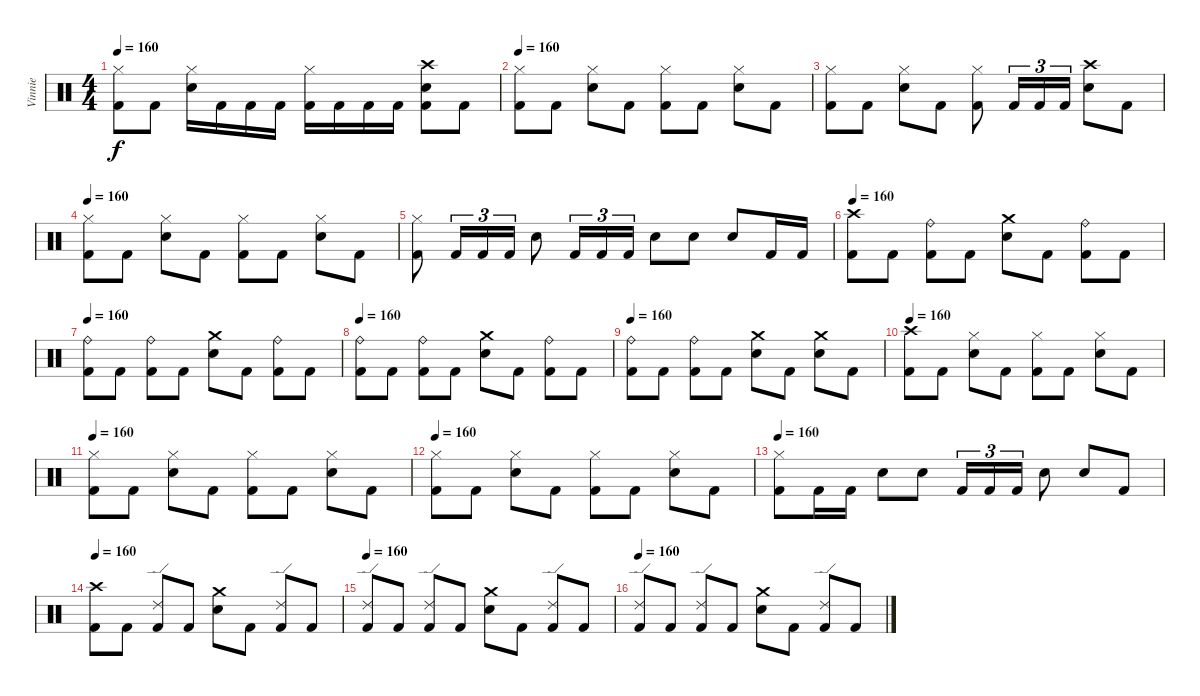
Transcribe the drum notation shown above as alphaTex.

\track ("Vinnie" "Vinnie") {instrument percussion}
\staff {score}
\articulation defaults
\ts (4 4)
\tempo 160
\clef neutral
\ks c
("Hi-Hat (closed)" "Kick (hit) 2").8{dy f} "Kick (hit) 2".8 ("Hi-Hat (closed)" "Electric Snare (hit)").16 "Kick (hit) 2".16 "Kick (hit) 2".16 "Kick (hit) 2".16 ("Hi-Hat (closed)" "Kick (hit) 2").16 "Kick (hit) 2".16 "Kick (hit) 2".16 "Kick (hit) 2".16 ("Crash high (hit)" "Electric Snare (hit)" "Kick (hit) 2").8 "Kick (hit) 2".8 |
\tempo 160
("Hi-Hat (closed)" "Kick (hit) 2").8 "Kick (hit) 2".8 ("Hi-Hat (closed)" "Electric Snare (hit)").8 "Kick (hit) 2".8 ("Hi-Hat (closed)" "Kick (hit) 2").8 "Kick (hit) 2".8 ("Hi-Hat (closed)" "Electric Snare (hit)").8 "Kick (hit) 2".8 |
("Hi-Hat (closed)" "Kick (hit) 2").8 "Kick (hit) 2".8 ("Hi-Hat (closed)" "Electric Snare (hit)").8 "Kick (hit) 2".8 ("Hi-Hat (closed)" "Kick (hit) 2").8 "Kick (hit) 2".16{tu (3 2)} "Kick (hit) 2".16{tu (3 2)} "Kick (hit) 2".16{tu (3 2)} ("Crash high (hit)" "Electric Snare (hit)").8 "Kick (hit) 2".8 |
\tempo 160
("Hi-Hat (closed)" "Kick (hit) 2").8 "Kick (hit) 2".8 ("Hi-Hat (closed)" "Electric Snare (hit)").8 "Kick (hit) 2".8 ("Hi-Hat (closed)" "Kick (hit) 2").8 "Kick (hit) 2".8 ("Hi-Hat (closed)" "Electric Snare (hit)").8 "Kick (hit) 2".8 |
("Hi-Hat (closed)" "Kick (hit) 2").8 "Kick (hit) 2".16{tu (3 2)} "Kick (hit) 2".16{tu (3 2)} "Kick (hit) 2".16{tu (3 2)} "Electric Snare (hit)".8 "Kick (hit) 2".16{tu (3 2)} "Kick (hit) 2".16{tu (3 2)} "Kick (hit) 2".16{tu (3 2)} "Electric Snare (hit)".8 "Electric Snare (hit)".8 "Electric Snare (hit)".8 "Kick (hit) 2".16 "Kick (hit) 2".16 |
\tempo 160
("Crash high (hit)" "Kick (hit) 2").8 "Kick (hit) 2".8 ("Ride (bell)" "Kick (hit) 2").8 "Kick (hit) 2".8 ("Crash medium (hit)" "Electric Snare (hit)").8 "Kick (hit) 2".8 ("Ride (bell)" "Kick (hit) 2").8 "Kick (hit) 2".8 |
\tempo 160
("Ride (bell)" "Kick (hit) 2").8 "Kick (hit) 2".8 ("Ride (bell)" "Kick (hit) 2").8 "Kick (hit) 2".8 ("Crash medium (hit)" "Electric Snare (hit)").8 "Kick (hit) 2".8 ("Ride (bell)" "Kick (hit) 2").8 "Kick (hit) 2".8 |
\tempo 160
("Ride (bell)" "Kick (hit) 2").8 "Kick (hit) 2".8 ("Ride (bell)" "Kick (hit) 2").8 "Kick (hit) 2".8 ("Crash medium (hit)" "Electric Snare (hit)").8 "Kick (hit) 2".8 ("Ride (bell)" "Kick (hit) 2").8 "Kick (hit) 2".8 |
\tempo 160
("Ride (bell)" "Kick (hit) 2").8 "Kick (hit) 2".8 ("Ride (bell)" "Kick (hit) 2").8 "Kick (hit) 2".8 ("Crash medium (hit)" "Electric Snare (hit)").8 "Kick (hit) 2".8 ("Crash medium (hit)" "Electric Snare (hit)").8 "Kick (hit) 2".8 |
\tempo 160
("Crash high (hit)" "Kick (hit) 2").8 "Kick (hit) 2".8 ("Hi-Hat (closed)" "Electric Snare (hit)").8 "Kick (hit) 2".8 ("Hi-Hat (closed)" "Kick (hit) 2").8 "Kick (hit) 2".8 ("Hi-Hat (closed)" "Electric Snare (hit)").8 "Kick (hit) 2".8 |
\tempo 160
("Hi-Hat (closed)" "Kick (hit) 2").8 "Kick (hit) 2".8 ("Hi-Hat (closed)" "Electric Snare (hit)").8 "Kick (hit) 2".8 ("Hi-Hat (closed)" "Kick (hit) 2").8 "Kick (hit) 2".8 ("Hi-Hat (closed)" "Electric Snare (hit)").8 "Kick (hit) 2".8 |
\tempo 160
("Hi-Hat (closed)" "Kick (hit) 2").8 "Kick (hit) 2".8 ("Hi-Hat (closed)" "Electric Snare (hit)").8 "Kick (hit) 2".8 ("Hi-Hat (closed)" "Kick (hit) 2").8 "Kick (hit) 2".8 ("Hi-Hat (closed)" "Electric Snare (hit)").8 "Kick (hit) 2".8 |
\tempo 160
("Hi-Hat (closed)" "Kick (hit) 2").8 "Kick (hit) 2".16 "Kick (hit) 2".16 "Electric Snare (hit)".8 "Electric Snare (hit)".8 "Kick (hit) 2".16{tu (3 2)} "Kick (hit) 2".16{tu (3 2)} "Kick (hit) 2".16{tu (3 2)} "Electric Snare (hit)".8 "Electric Snare (hit)".8 "Kick (hit) 2".8 |
\tempo 160
("Crash high (hit)" "Kick (hit) 2").8 "Kick (hit) 2".8 ("Ride (edge) 2" "Kick (hit) 2").8 "Kick (hit) 2".8 ("Crash medium (hit)" "Electric Snare (hit)").8 "Kick (hit) 2".8 ("Ride (edge) 2" "Kick (hit) 2").8 "Kick (hit) 2".8 |
\tempo 160
("Ride (edge) 2" "Kick (hit) 2").8 "Kick (hit) 2".8 ("Ride (edge) 2" "Kick (hit) 2").8 "Kick (hit) 2".8 ("Crash medium (hit)" "Electric Snare (hit)").8 "Kick (hit) 2".8 ("Ride (edge) 2" "Kick (hit) 2").8 "Kick (hit) 2".8 |
\tempo 160
("Ride (edge) 2" "Kick (hit) 2").8 "Kick (hit) 2".8 ("Ride (edge) 2" "Kick (hit) 2").8 "Kick (hit) 2".8 ("Crash medium (hit)" "Electric Snare (hit)").8 "Kick (hit) 2".8 ("Ride (edge) 2" "Kick (hit) 2").8 "Kick (hit) 2".8
